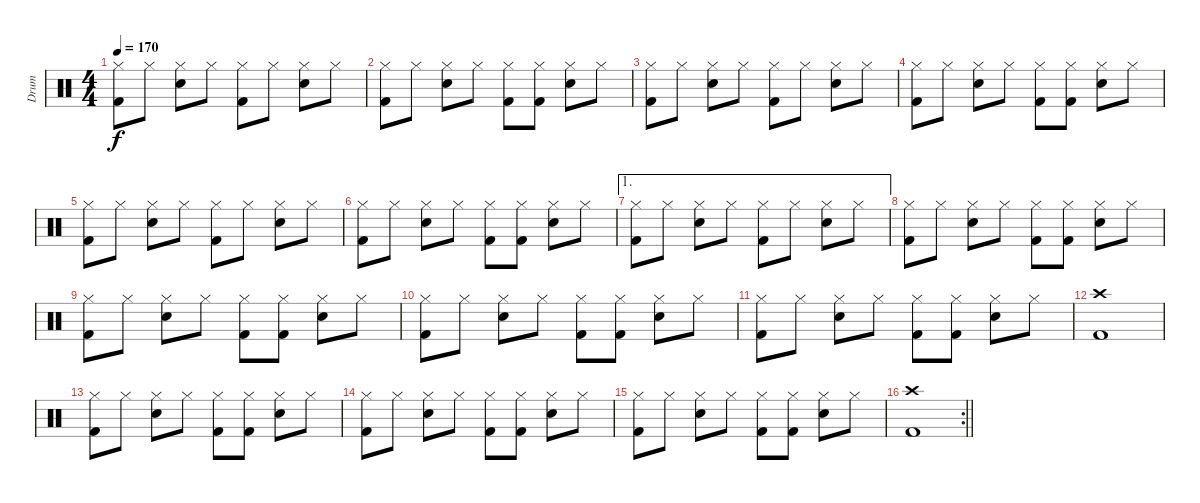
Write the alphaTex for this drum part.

\track ("Drum" "Drum") {instrument percussion}
\staff {score}
\articulation defaults
\ts (4 4)
\tempo 170
\clef neutral
\ks c
("Hi-Hat (closed)" "Kick (hit) 2").8{dy f} "Hi-Hat (closed)".8 ("Hi-Hat (closed)" "Snare (hit) 2").8 "Hi-Hat (closed)".8 ("Hi-Hat (closed)" "Kick (hit) 2").8 "Hi-Hat (closed)".8 ("Hi-Hat (closed)" "Snare (hit) 2").8 "Hi-Hat (closed)".8 |
("Hi-Hat (closed)" "Kick (hit) 2").8 "Hi-Hat (closed)".8 ("Hi-Hat (closed)" "Snare (hit) 2").8 "Hi-Hat (closed)".8 ("Hi-Hat (closed)" "Kick (hit) 2").8 ("Hi-Hat (closed)" "Kick (hit) 2").8 ("Hi-Hat (closed)" "Snare (hit) 2").8 "Hi-Hat (closed)".8 |
("Hi-Hat (closed)" "Kick (hit) 2").8 "Hi-Hat (closed)".8 ("Hi-Hat (closed)" "Snare (hit) 2").8 "Hi-Hat (closed)".8 ("Hi-Hat (closed)" "Kick (hit) 2").8 "Hi-Hat (closed)".8 ("Hi-Hat (closed)" "Snare (hit) 2").8 "Hi-Hat (closed)".8 |
("Hi-Hat (closed)" "Kick (hit) 2").8 "Hi-Hat (closed)".8 ("Hi-Hat (closed)" "Snare (hit) 2").8 "Hi-Hat (closed)".8 ("Hi-Hat (closed)" "Kick (hit) 2").8 ("Hi-Hat (closed)" "Kick (hit) 2").8 ("Hi-Hat (closed)" "Snare (hit) 2").8 "Hi-Hat (closed)".8 |
("Hi-Hat (closed)" "Kick (hit) 2").8 "Hi-Hat (closed)".8 ("Hi-Hat (closed)" "Snare (hit) 2").8 "Hi-Hat (closed)".8 ("Hi-Hat (closed)" "Kick (hit) 2").8 "Hi-Hat (closed)".8 ("Hi-Hat (closed)" "Snare (hit) 2").8 "Hi-Hat (closed)".8 |
("Hi-Hat (closed)" "Kick (hit) 2").8 "Hi-Hat (closed)".8 ("Hi-Hat (closed)" "Snare (hit) 2").8 "Hi-Hat (closed)".8 ("Hi-Hat (closed)" "Kick (hit) 2").8 ("Hi-Hat (closed)" "Kick (hit) 2").8 ("Hi-Hat (closed)" "Snare (hit) 2").8 "Hi-Hat (closed)".8 |
\ae 1
("Hi-Hat (closed)" "Kick (hit) 2").8 "Hi-Hat (closed)".8 ("Hi-Hat (closed)" "Snare (hit) 2").8 "Hi-Hat (closed)".8 ("Hi-Hat (closed)" "Kick (hit) 2").8 "Hi-Hat (closed)".8 ("Hi-Hat (closed)" "Snare (hit) 2").8 "Hi-Hat (closed)".8 |
("Hi-Hat (closed)" "Kick (hit) 2").8 "Hi-Hat (closed)".8 ("Hi-Hat (closed)" "Snare (hit) 2").8 "Hi-Hat (closed)".8 ("Hi-Hat (closed)" "Kick (hit) 2").8 ("Hi-Hat (closed)" "Kick (hit) 2").8 ("Hi-Hat (closed)" "Snare (hit) 2").8 "Hi-Hat (closed)".8 |
("Hi-Hat (closed)" "Kick (hit) 2").8 "Hi-Hat (closed)".8 ("Hi-Hat (closed)" "Snare (hit) 2").8 "Hi-Hat (closed)".8 ("Hi-Hat (closed)" "Kick (hit) 2").8 ("Hi-Hat (closed)" "Kick (hit) 2").8 ("Hi-Hat (closed)" "Snare (hit) 2").8 "Hi-Hat (closed)".8 |
("Hi-Hat (closed)" "Kick (hit) 2").8 "Hi-Hat (closed)".8 ("Hi-Hat (closed)" "Snare (hit) 2").8 "Hi-Hat (closed)".8 ("Hi-Hat (closed)" "Kick (hit) 2").8 ("Hi-Hat (closed)" "Kick (hit) 2").8 ("Hi-Hat (closed)" "Snare (hit) 2").8 "Hi-Hat (closed)".8 |
("Hi-Hat (closed)" "Kick (hit) 2").8 "Hi-Hat (closed)".8 ("Hi-Hat (closed)" "Snare (hit) 2").8 "Hi-Hat (closed)".8 ("Hi-Hat (closed)" "Kick (hit) 2").8 ("Hi-Hat (closed)" "Kick (hit) 2").8 ("Hi-Hat (closed)" "Snare (hit) 2").8 "Hi-Hat (closed)".8 |
("Crash high (hit)" "Kick (hit) 2").1 |
("Hi-Hat (closed)" "Kick (hit) 2").8 "Hi-Hat (closed)".8 ("Hi-Hat (closed)" "Snare (hit) 2").8 "Hi-Hat (closed)".8 ("Hi-Hat (closed)" "Kick (hit) 2").8 ("Hi-Hat (closed)" "Kick (hit) 2").8 ("Hi-Hat (closed)" "Snare (hit) 2").8 "Hi-Hat (closed)".8 |
("Hi-Hat (closed)" "Kick (hit) 2").8 "Hi-Hat (closed)".8 ("Hi-Hat (closed)" "Snare (hit) 2").8 "Hi-Hat (closed)".8 ("Hi-Hat (closed)" "Kick (hit) 2").8 ("Hi-Hat (closed)" "Kick (hit) 2").8 ("Hi-Hat (closed)" "Snare (hit) 2").8 "Hi-Hat (closed)".8 |
("Hi-Hat (closed)" "Kick (hit) 2").8 "Hi-Hat (closed)".8 ("Hi-Hat (closed)" "Snare (hit) 2").8 "Hi-Hat (closed)".8 ("Hi-Hat (closed)" "Kick (hit) 2").8 ("Hi-Hat (closed)" "Kick (hit) 2").8 ("Hi-Hat (closed)" "Snare (hit) 2").8 "Hi-Hat (closed)".8 |
\rc 2
\barLineRight lightlight
("Crash high (hit)" "Kick (hit) 2").1
